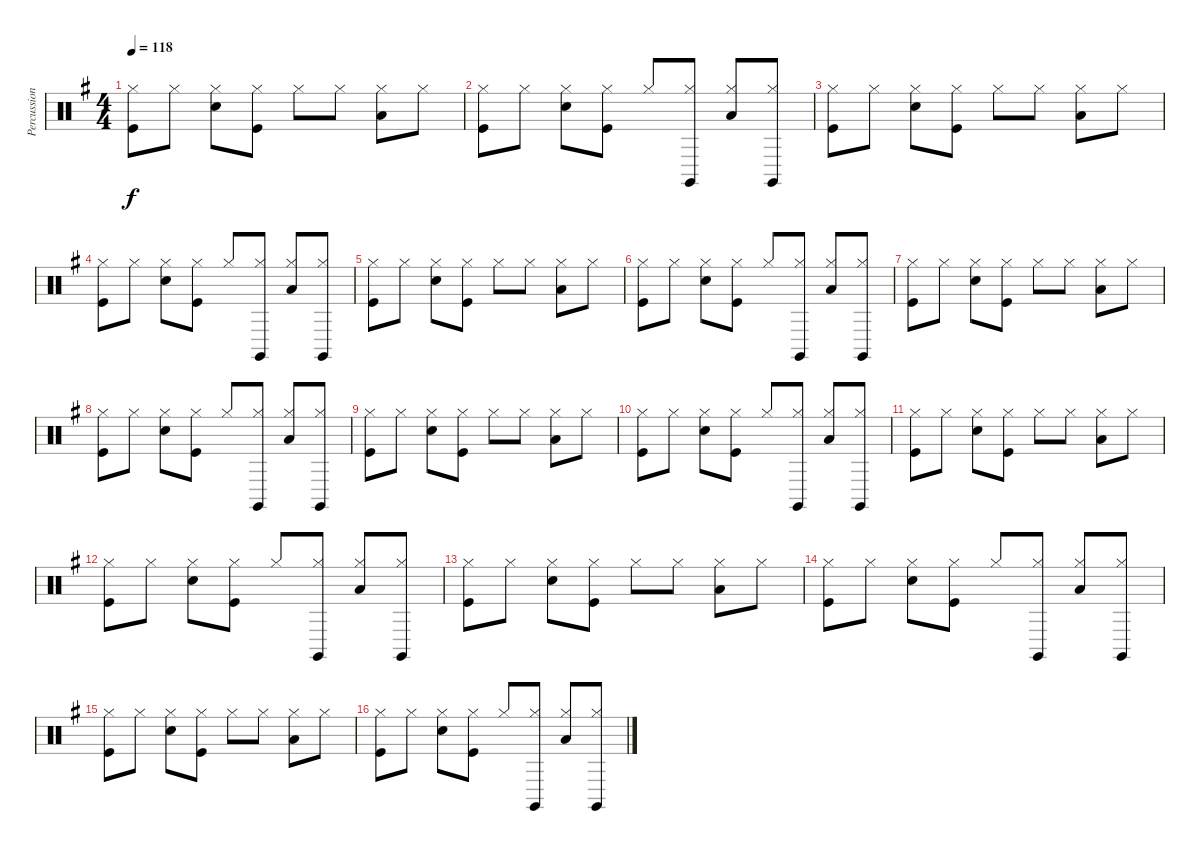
\track ("Percussion" "Percussion") {instrument percussion}
\staff {score}
\articulation defaults
\ts (4 4)
\tempo 118
\clef neutral
\ks g
("Hi-Hat (closed)" "Kick (hit)").8{dy f} "Hi-Hat (closed)".8 ("Hi-Hat (closed)" "Electric Snare (hit)").8 ("Hi-Hat (closed)" "Kick (hit)").8 "Hi-Hat (closed)".8 "Hi-Hat (closed)".8 ("Hi-Hat (closed)" "Low Tom (hit)").8 "Hi-Hat (closed)".8 |
("Hi-Hat (closed)" "Kick (hit)").8 "Hi-Hat (closed)".8 ("Hi-Hat (closed)" "Electric Snare (hit)").8 ("Hi-Hat (closed)" "Kick (hit)").8 "Hi-Hat (closed)".8 ("Hi-Hat (closed)" "Claves (hit)").8 ("Hi-Hat (closed)" "Low Tom (hit)").8 ("Hi-Hat (closed)" "Claves (hit)").8 |
("Hi-Hat (closed)" "Kick (hit)").8 "Hi-Hat (closed)".8 ("Hi-Hat (closed)" "Electric Snare (hit)").8 ("Hi-Hat (closed)" "Kick (hit)").8 "Hi-Hat (closed)".8 "Hi-Hat (closed)".8 ("Hi-Hat (closed)" "Low Tom (hit)").8 "Hi-Hat (closed)".8 |
("Hi-Hat (closed)" "Kick (hit)").8 "Hi-Hat (closed)".8 ("Hi-Hat (closed)" "Electric Snare (hit)").8 ("Hi-Hat (closed)" "Kick (hit)").8 "Hi-Hat (closed)".8 ("Hi-Hat (closed)" "Claves (hit)").8 ("Hi-Hat (closed)" "Low Tom (hit)").8 ("Hi-Hat (closed)" "Claves (hit)").8 |
("Hi-Hat (closed)" "Kick (hit)").8 "Hi-Hat (closed)".8 ("Hi-Hat (closed)" "Electric Snare (hit)").8 ("Hi-Hat (closed)" "Kick (hit)").8 "Hi-Hat (closed)".8 "Hi-Hat (closed)".8 ("Hi-Hat (closed)" "Low Tom (hit)").8 "Hi-Hat (closed)".8 |
("Hi-Hat (closed)" "Kick (hit)").8 "Hi-Hat (closed)".8 ("Hi-Hat (closed)" "Electric Snare (hit)").8 ("Hi-Hat (closed)" "Kick (hit)").8 "Hi-Hat (closed)".8 ("Hi-Hat (closed)" "Claves (hit)").8 ("Hi-Hat (closed)" "Low Tom (hit)").8 ("Hi-Hat (closed)" "Claves (hit)").8 |
("Hi-Hat (closed)" "Kick (hit)").8 "Hi-Hat (closed)".8 ("Hi-Hat (closed)" "Electric Snare (hit)").8 ("Hi-Hat (closed)" "Kick (hit)").8 "Hi-Hat (closed)".8 "Hi-Hat (closed)".8 ("Hi-Hat (closed)" "Low Tom (hit)").8 "Hi-Hat (closed)".8 |
("Hi-Hat (closed)" "Kick (hit)").8 "Hi-Hat (closed)".8 ("Hi-Hat (closed)" "Electric Snare (hit)").8 ("Hi-Hat (closed)" "Kick (hit)").8 "Hi-Hat (closed)".8 ("Hi-Hat (closed)" "Claves (hit)").8 ("Hi-Hat (closed)" "Low Tom (hit)").8 ("Hi-Hat (closed)" "Claves (hit)").8 |
("Hi-Hat (closed)" "Kick (hit)").8 "Hi-Hat (closed)".8 ("Hi-Hat (closed)" "Electric Snare (hit)").8 ("Hi-Hat (closed)" "Kick (hit)").8 "Hi-Hat (closed)".8 "Hi-Hat (closed)".8 ("Hi-Hat (closed)" "Low Tom (hit)").8 "Hi-Hat (closed)".8 |
("Hi-Hat (closed)" "Kick (hit)").8 "Hi-Hat (closed)".8 ("Hi-Hat (closed)" "Electric Snare (hit)").8 ("Hi-Hat (closed)" "Kick (hit)").8 "Hi-Hat (closed)".8 ("Hi-Hat (closed)" "Claves (hit)").8 ("Hi-Hat (closed)" "Low Tom (hit)").8 ("Hi-Hat (closed)" "Claves (hit)").8 |
("Hi-Hat (closed)" "Kick (hit)").8 "Hi-Hat (closed)".8 ("Hi-Hat (closed)" "Electric Snare (hit)").8 ("Hi-Hat (closed)" "Kick (hit)").8 "Hi-Hat (closed)".8 "Hi-Hat (closed)".8 ("Hi-Hat (closed)" "Low Tom (hit)").8 "Hi-Hat (closed)".8 |
("Hi-Hat (closed)" "Kick (hit)").8 "Hi-Hat (closed)".8 ("Hi-Hat (closed)" "Electric Snare (hit)").8 ("Hi-Hat (closed)" "Kick (hit)").8 "Hi-Hat (closed)".8 ("Hi-Hat (closed)" "Claves (hit)").8 ("Hi-Hat (closed)" "Low Tom (hit)").8 ("Hi-Hat (closed)" "Claves (hit)").8 |
("Hi-Hat (closed)" "Kick (hit)").8 "Hi-Hat (closed)".8 ("Hi-Hat (closed)" "Electric Snare (hit)").8 ("Hi-Hat (closed)" "Kick (hit)").8 "Hi-Hat (closed)".8 "Hi-Hat (closed)".8 ("Hi-Hat (closed)" "Low Tom (hit)").8 "Hi-Hat (closed)".8 |
("Hi-Hat (closed)" "Kick (hit)").8 "Hi-Hat (closed)".8 ("Hi-Hat (closed)" "Electric Snare (hit)").8 ("Hi-Hat (closed)" "Kick (hit)").8 "Hi-Hat (closed)".8 ("Hi-Hat (closed)" "Claves (hit)").8 ("Hi-Hat (closed)" "Low Tom (hit)").8 ("Hi-Hat (closed)" "Claves (hit)").8 |
("Hi-Hat (closed)" "Kick (hit)").8 "Hi-Hat (closed)".8 ("Hi-Hat (closed)" "Electric Snare (hit)").8 ("Hi-Hat (closed)" "Kick (hit)").8 "Hi-Hat (closed)".8 "Hi-Hat (closed)".8 ("Hi-Hat (closed)" "Low Tom (hit)").8 "Hi-Hat (closed)".8 |
("Hi-Hat (closed)" "Kick (hit)").8 "Hi-Hat (closed)".8 ("Hi-Hat (closed)" "Electric Snare (hit)").8 ("Hi-Hat (closed)" "Kick (hit)").8 "Hi-Hat (closed)".8 ("Hi-Hat (closed)" "Claves (hit)").8 ("Hi-Hat (closed)" "Low Tom (hit)").8 ("Hi-Hat (closed)" "Claves (hit)").8
